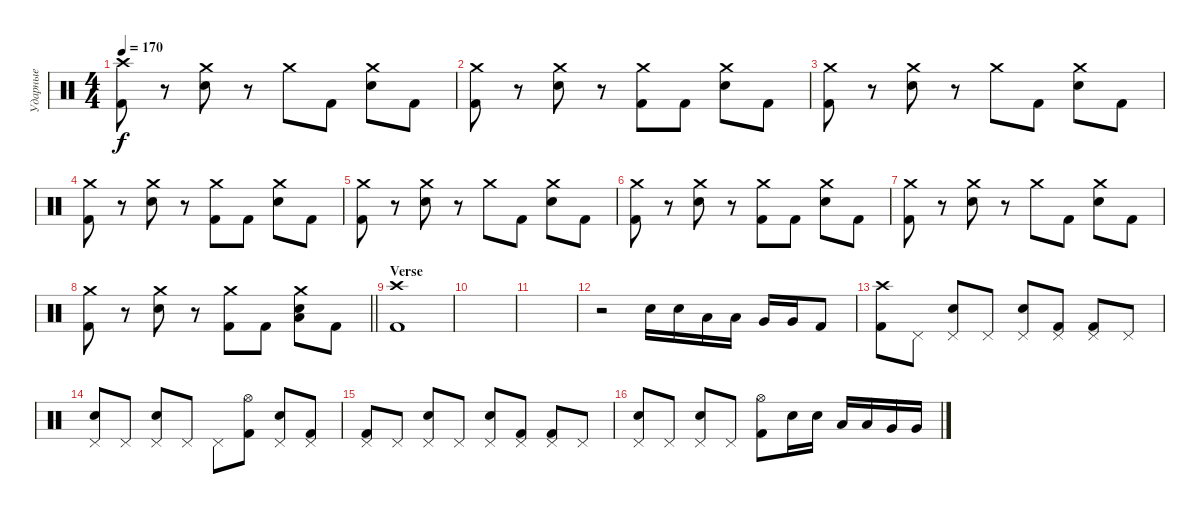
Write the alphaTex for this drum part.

\track ("Ударные" "Ударные") {instrument percussion}
\staff {score}
\articulation defaults
\ts (4 4)
\tempo 170
\clef neutral
\ks c
("Crash high (hit)" "Kick (hit) 2").8{dy f} r.8 ("Crash medium (hit)" "Electric Snare (hit)").8 r.8 "Crash medium (hit)".8 "Kick (hit) 2".8 ("Crash medium (hit)" "Electric Snare (hit)").8 "Kick (hit) 2".8 |
("Crash medium (hit)" "Kick (hit) 2").8 r.8 ("Crash medium (hit)" "Electric Snare (hit)").8 r.8 ("Crash medium (hit)" "Kick (hit) 2").8 "Kick (hit) 2".8 ("Crash medium (hit)" "Electric Snare (hit)").8 "Kick (hit) 2".8 |
("Crash medium (hit)" "Kick (hit) 2").8 r.8 ("Crash medium (hit)" "Electric Snare (hit)").8 r.8 "Crash medium (hit)".8 "Kick (hit) 2".8 ("Crash medium (hit)" "Electric Snare (hit)").8 "Kick (hit) 2".8 |
("Crash medium (hit)" "Kick (hit) 2").8 r.8 ("Crash medium (hit)" "Electric Snare (hit)").8 r.8 ("Crash medium (hit)" "Kick (hit) 2").8 "Kick (hit) 2".8 ("Crash medium (hit)" "Electric Snare (hit)").8 "Kick (hit) 2".8 |
("Crash medium (hit)" "Kick (hit) 2").8 r.8 ("Crash medium (hit)" "Electric Snare (hit)").8 r.8 "Crash medium (hit)".8 "Kick (hit) 2".8 ("Crash medium (hit)" "Electric Snare (hit)").8 "Kick (hit) 2".8 |
("Crash medium (hit)" "Kick (hit) 2").8 r.8 ("Crash medium (hit)" "Electric Snare (hit)").8 r.8 ("Crash medium (hit)" "Kick (hit) 2").8 "Kick (hit) 2".8 ("Crash medium (hit)" "Electric Snare (hit)").8 "Kick (hit) 2".8 |
("Crash medium (hit)" "Kick (hit) 2").8 r.8 ("Crash medium (hit)" "Electric Snare (hit)").8 r.8 "Crash medium (hit)".8 "Kick (hit) 2".8 ("Crash medium (hit)" "Electric Snare (hit)").8 "Kick (hit) 2".8 |
\barLineRight lightlight
("Crash medium (hit)" "Kick (hit) 2").8 r.8 ("Crash medium (hit)" "Electric Snare (hit)").8 r.8 ("Crash medium (hit)" "Kick (hit) 2").8 "Kick (hit) 2".8 ("Crash medium (hit)" "Electric Snare (hit)" "Low Tom (hit)").8 "Kick (hit) 2".8 |
\section ("" "Verse")
("Crash high (hit)" "Kick (hit) 2").1 |
|
|
r.2 "Electric Snare (hit)".16 "Electric Snare (hit)".16 "Low Tom (hit)".16 "Low Tom (hit)".16 "Very Low Tom (hit)".16 "Very Low Tom (hit)".16 "Kick (hit) 2".8 |
("Crash high (hit)" "Kick (hit) 2").8 "Pedal Hi-Hat (hit)".8 ("Pedal Hi-Hat (hit)" "Electric Snare (hit)").8 "Pedal Hi-Hat (hit)".8 ("Pedal Hi-Hat (hit)" "Electric Snare (hit)").8 ("Pedal Hi-Hat (hit)" "Kick (hit) 2").8 ("Pedal Hi-Hat (hit)" "Kick (hit) 2").8 "Pedal Hi-Hat (hit)".8 |
("Pedal Hi-Hat (hit)" "Electric Snare (hit)").8 "Pedal Hi-Hat (hit)".8 ("Pedal Hi-Hat (hit)" "Electric Snare (hit)").8 "Pedal Hi-Hat (hit)".8 "Pedal Hi-Hat (hit)".8 ("Hi-Hat (open)" "Kick (hit) 2").8 ("Pedal Hi-Hat (hit)" "Electric Snare (hit)").8 ("Pedal Hi-Hat (hit)" "Kick (hit) 2").8 |
("Pedal Hi-Hat (hit)" "Kick (hit) 2").8 "Pedal Hi-Hat (hit)".8 ("Pedal Hi-Hat (hit)" "Electric Snare (hit)").8 "Pedal Hi-Hat (hit)".8 ("Pedal Hi-Hat (hit)" "Electric Snare (hit)").8 ("Pedal Hi-Hat (hit)" "Kick (hit) 2").8 ("Pedal Hi-Hat (hit)" "Kick (hit) 2").8 "Pedal Hi-Hat (hit)".8 |
("Pedal Hi-Hat (hit)" "Electric Snare (hit)").8 "Pedal Hi-Hat (hit)".8 ("Pedal Hi-Hat (hit)" "Electric Snare (hit)").8 "Pedal Hi-Hat (hit)".8 ("Hi-Hat (open)" "Kick (hit) 2").8 "Electric Snare (hit)".16 "Electric Snare (hit)".16 "Low Tom (hit)".16 "Low Tom (hit)".16 "Very Low Tom (hit)".16 "Very Low Tom (hit)".16
